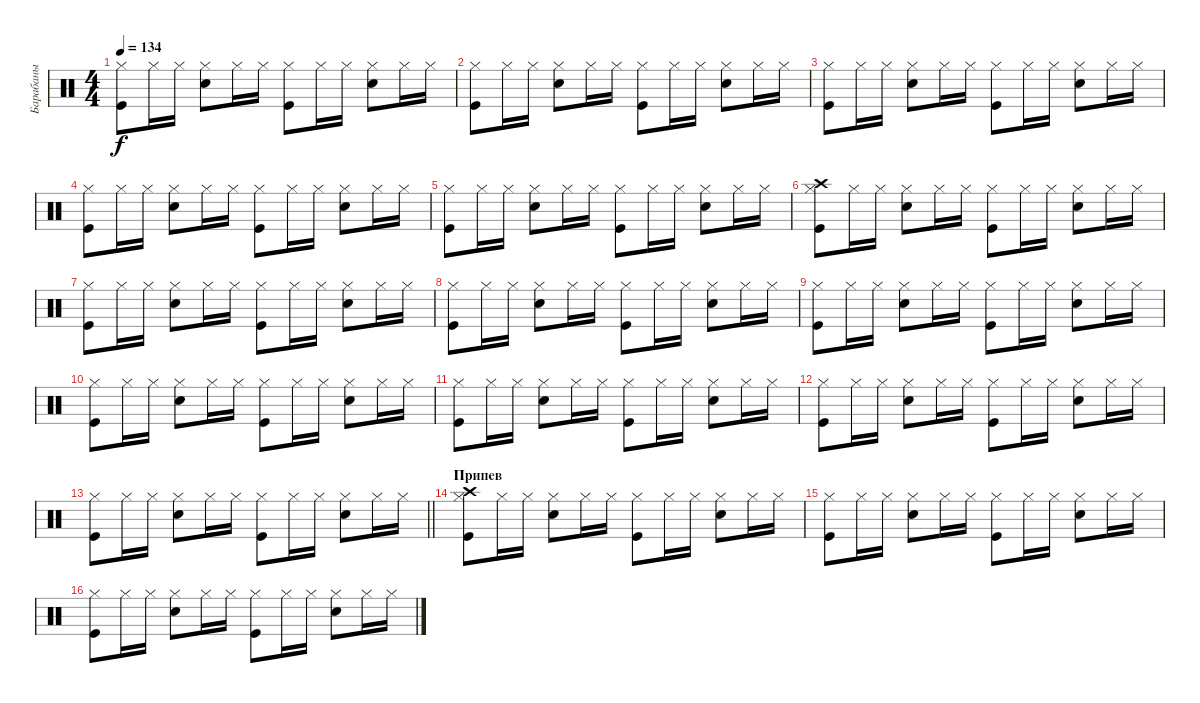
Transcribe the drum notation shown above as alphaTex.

\track ("Барабаны" "Барабаны") {instrument percussion}
\staff {score}
\articulation defaults
\ts (4 4)
\tempo 134
\clef neutral
\ks c
("Kick (hit)" "Hi-Hat (closed)").8{dy f} "Hi-Hat (closed)".16 "Hi-Hat (closed)".16 ("Snare (hit) 2" "Hi-Hat (closed)").8 "Hi-Hat (closed)".16 "Hi-Hat (closed)".16 ("Kick (hit)" "Hi-Hat (closed)").8 "Hi-Hat (closed)".16 "Hi-Hat (closed)".16 ("Snare (hit) 2" "Hi-Hat (closed)").8 "Hi-Hat (closed)".16 "Hi-Hat (closed)".16 |
("Kick (hit)" "Hi-Hat (closed)").8 "Hi-Hat (closed)".16 "Hi-Hat (closed)".16 ("Snare (hit) 2" "Hi-Hat (closed)").8 "Hi-Hat (closed)".16 "Hi-Hat (closed)".16 ("Kick (hit)" "Hi-Hat (closed)").8 "Hi-Hat (closed)".16 "Hi-Hat (closed)".16 ("Snare (hit) 2" "Hi-Hat (closed)").8 "Hi-Hat (closed)".16 "Hi-Hat (closed)".16 |
("Kick (hit)" "Hi-Hat (closed)").8 "Hi-Hat (closed)".16 "Hi-Hat (closed)".16 ("Snare (hit) 2" "Hi-Hat (closed)").8 "Hi-Hat (closed)".16 "Hi-Hat (closed)".16 ("Kick (hit)" "Hi-Hat (closed)").8 "Hi-Hat (closed)".16 "Hi-Hat (closed)".16 ("Snare (hit) 2" "Hi-Hat (closed)").8 "Hi-Hat (closed)".16 "Hi-Hat (closed)".16 |
("Kick (hit)" "Hi-Hat (closed)").8 "Hi-Hat (closed)".16 "Hi-Hat (closed)".16 ("Snare (hit) 2" "Hi-Hat (closed)").8 "Hi-Hat (closed)".16 "Hi-Hat (closed)".16 ("Kick (hit)" "Hi-Hat (closed)").8 "Hi-Hat (closed)".16 "Hi-Hat (closed)".16 ("Snare (hit) 2" "Hi-Hat (closed)").8 "Hi-Hat (closed)".16 "Hi-Hat (closed)".16 |
("Kick (hit)" "Hi-Hat (closed)").8 "Hi-Hat (closed)".16 "Hi-Hat (closed)".16 ("Snare (hit) 2" "Hi-Hat (closed)").8 "Hi-Hat (closed)".16 "Hi-Hat (closed)".16 ("Kick (hit)" "Hi-Hat (closed)").8 "Hi-Hat (closed)".16 "Hi-Hat (closed)".16 ("Snare (hit) 2" "Hi-Hat (closed)").8 "Hi-Hat (closed)".16 "Hi-Hat (closed)".16 |
("Kick (hit)" "Hi-Hat (closed)" "Crash high (hit)").8 "Hi-Hat (closed)".16 "Hi-Hat (closed)".16 ("Snare (hit) 2" "Hi-Hat (closed)").8 "Hi-Hat (closed)".16 "Hi-Hat (closed)".16 ("Kick (hit)" "Hi-Hat (closed)").8 "Hi-Hat (closed)".16 "Hi-Hat (closed)".16 ("Snare (hit) 2" "Hi-Hat (closed)").8 "Hi-Hat (closed)".16 "Hi-Hat (closed)".16 |
("Kick (hit)" "Hi-Hat (closed)").8 "Hi-Hat (closed)".16 "Hi-Hat (closed)".16 ("Snare (hit) 2" "Hi-Hat (closed)").8 "Hi-Hat (closed)".16 "Hi-Hat (closed)".16 ("Kick (hit)" "Hi-Hat (closed)").8 "Hi-Hat (closed)".16 "Hi-Hat (closed)".16 ("Snare (hit) 2" "Hi-Hat (closed)").8 "Hi-Hat (closed)".16 "Hi-Hat (closed)".16 |
("Kick (hit)" "Hi-Hat (closed)").8 "Hi-Hat (closed)".16 "Hi-Hat (closed)".16 ("Snare (hit) 2" "Hi-Hat (closed)").8 "Hi-Hat (closed)".16 "Hi-Hat (closed)".16 ("Kick (hit)" "Hi-Hat (closed)").8 "Hi-Hat (closed)".16 "Hi-Hat (closed)".16 ("Snare (hit) 2" "Hi-Hat (closed)").8 "Hi-Hat (closed)".16 "Hi-Hat (closed)".16 |
("Kick (hit)" "Hi-Hat (closed)").8 "Hi-Hat (closed)".16 "Hi-Hat (closed)".16 ("Snare (hit) 2" "Hi-Hat (closed)").8 "Hi-Hat (closed)".16 "Hi-Hat (closed)".16 ("Kick (hit)" "Hi-Hat (closed)").8 "Hi-Hat (closed)".16 "Hi-Hat (closed)".16 ("Snare (hit) 2" "Hi-Hat (closed)").8 "Hi-Hat (closed)".16 "Hi-Hat (closed)".16 |
("Kick (hit)" "Hi-Hat (closed)").8 "Hi-Hat (closed)".16 "Hi-Hat (closed)".16 ("Snare (hit) 2" "Hi-Hat (closed)").8 "Hi-Hat (closed)".16 "Hi-Hat (closed)".16 ("Kick (hit)" "Hi-Hat (closed)").8 "Hi-Hat (closed)".16 "Hi-Hat (closed)".16 ("Snare (hit) 2" "Hi-Hat (closed)").8 "Hi-Hat (closed)".16 "Hi-Hat (closed)".16 |
("Kick (hit)" "Hi-Hat (closed)").8 "Hi-Hat (closed)".16 "Hi-Hat (closed)".16 ("Snare (hit) 2" "Hi-Hat (closed)").8 "Hi-Hat (closed)".16 "Hi-Hat (closed)".16 ("Kick (hit)" "Hi-Hat (closed)").8 "Hi-Hat (closed)".16 "Hi-Hat (closed)".16 ("Snare (hit) 2" "Hi-Hat (closed)").8 "Hi-Hat (closed)".16 "Hi-Hat (closed)".16 |
("Kick (hit)" "Hi-Hat (closed)").8 "Hi-Hat (closed)".16 "Hi-Hat (closed)".16 ("Snare (hit) 2" "Hi-Hat (closed)").8 "Hi-Hat (closed)".16 "Hi-Hat (closed)".16 ("Kick (hit)" "Hi-Hat (closed)").8 "Hi-Hat (closed)".16 "Hi-Hat (closed)".16 ("Snare (hit) 2" "Hi-Hat (closed)").8 "Hi-Hat (closed)".16 "Hi-Hat (closed)".16 |
\barLineRight lightlight
("Kick (hit)" "Hi-Hat (closed)").8 "Hi-Hat (closed)".16 "Hi-Hat (closed)".16 ("Snare (hit) 2" "Hi-Hat (closed)").8 "Hi-Hat (closed)".16 "Hi-Hat (closed)".16 ("Kick (hit)" "Hi-Hat (closed)").8 "Hi-Hat (closed)".16 "Hi-Hat (closed)".16 ("Snare (hit) 2" "Hi-Hat (closed)").8 "Hi-Hat (closed)".16 "Hi-Hat (closed)".16 |
\section ("" "Припев")
("Kick (hit)" "Hi-Hat (closed)" "Crash high (hit)").8 "Hi-Hat (closed)".16 "Hi-Hat (closed)".16 ("Snare (hit) 2" "Hi-Hat (closed)").8 "Hi-Hat (closed)".16 "Hi-Hat (closed)".16 ("Kick (hit)" "Hi-Hat (closed)").8 "Hi-Hat (closed)".16 "Hi-Hat (closed)".16 ("Snare (hit) 2" "Hi-Hat (closed)").8 "Hi-Hat (closed)".16 "Hi-Hat (closed)".16 |
("Kick (hit)" "Hi-Hat (closed)").8 "Hi-Hat (closed)".16 "Hi-Hat (closed)".16 ("Snare (hit) 2" "Hi-Hat (closed)").8 "Hi-Hat (closed)".16 "Hi-Hat (closed)".16 ("Kick (hit)" "Hi-Hat (closed)").8 "Hi-Hat (closed)".16 "Hi-Hat (closed)".16 ("Snare (hit) 2" "Hi-Hat (closed)").8 "Hi-Hat (closed)".16 "Hi-Hat (closed)".16 |
("Kick (hit)" "Hi-Hat (closed)").8 "Hi-Hat (closed)".16 "Hi-Hat (closed)".16 ("Snare (hit) 2" "Hi-Hat (closed)").8 "Hi-Hat (closed)".16 "Hi-Hat (closed)".16 ("Kick (hit)" "Hi-Hat (closed)").8 "Hi-Hat (closed)".16 "Hi-Hat (closed)".16 ("Snare (hit) 2" "Hi-Hat (closed)").8 "Hi-Hat (closed)".16 "Hi-Hat (closed)".16
